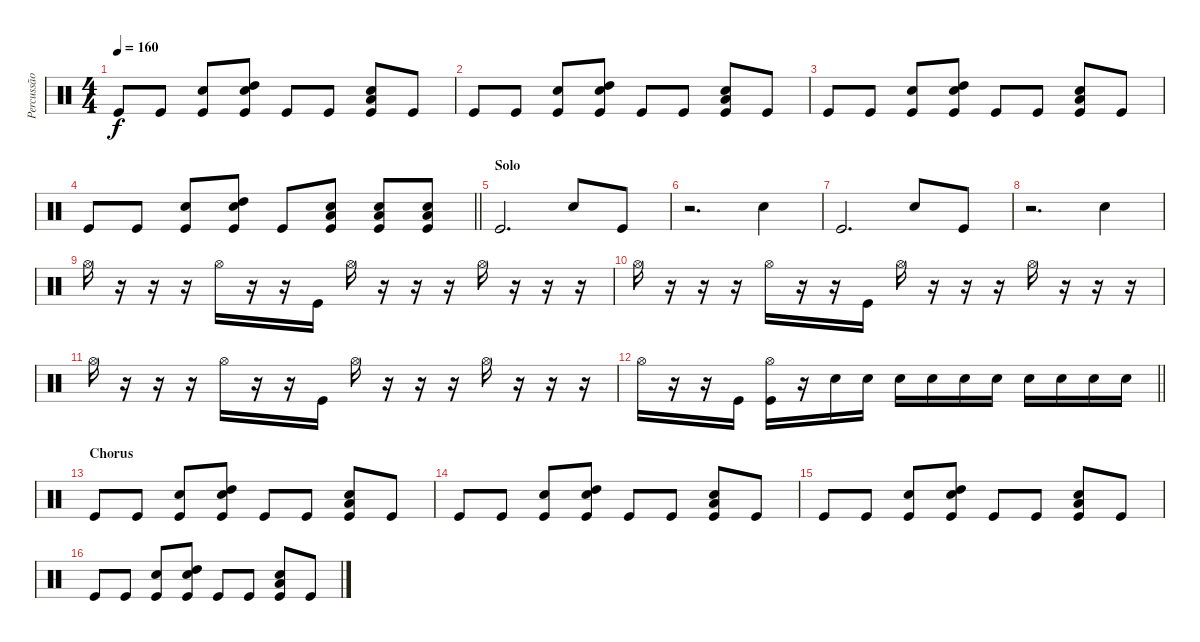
\track ("Percussão" "Percussão") {instrument percussion}
\staff {score}
\articulation defaults
\ts (4 4)
\tempo 160
\clef neutral
\ks c "Kick (hit)".8{dy f} "Kick (hit)".8
("Snare (hit) 2" "Kick (hit)").8 ("Snare (hit) 2" "High Tom (hit)" "Kick (hit)").8 "Kick (hit)".8 "Kick (hit)".8 ("Snare (hit) 2" "Low Tom (hit)" "Kick (hit)").8 "Kick (hit)".8 |
"Kick (hit)".8 "Kick (hit)".8 ("Snare (hit) 2" "Kick (hit)").8 ("Snare (hit) 2" "High Tom (hit)" "Kick (hit)").8 "Kick (hit)".8 "Kick (hit)".8 ("Snare (hit) 2" "Low Tom (hit)" "Kick (hit)").8 "Kick (hit)".8 |
"Kick (hit)".8 "Kick (hit)".8 ("Snare (hit) 2" "Kick (hit)").8 ("Snare (hit) 2" "High Tom (hit)" "Kick (hit)").8 "Kick (hit)".8 "Kick (hit)".8 ("Snare (hit) 2" "Low Tom (hit)" "Kick (hit)").8 "Kick (hit)".8 |
\barLineRight lightlight "Kick (hit)".8 "Kick (hit)".8
("Snare (hit) 2" "Kick (hit)").8 ("Snare (hit) 2" "High Tom (hit)" "Kick (hit)").8 "Kick (hit)".8 ("Snare (hit) 2" "Low Tom (hit)" "Kick (hit)").8 ("Snare (hit) 2" "Low Tom (hit)" "Kick (hit)").8 ("Snare (hit) 2" "Low Tom (hit)" "Kick (hit)").8 |
\section ("" "Solo")
"Kick (hit)".2{d} "Snare (hit) 2".8 "Kick (hit)".8 |
r.2{d} "Snare (hit) 2".4 |
"Kick (hit)".2{d} "Snare (hit) 2".8 "Kick (hit)".8 |
r.2{d} "Snare (hit) 2".4 |
"Hi-Hat (open)".16 r.16 r.16 r.16 "Hi-Hat (open)".16 r.16 r.16 "Kick (hit)".16 "Hi-Hat (open)".16 r.16 r.16 r.16 "Hi-Hat (open)".16 r.16 r.16 r.16 |
"Hi-Hat (open)".16 r.16 r.16 r.16 "Hi-Hat (open)".16 r.16 r.16 "Kick (hit)".16 "Hi-Hat (open)".16 r.16 r.16 r.16 "Hi-Hat (open)".16 r.16 r.16 r.16 |
"Hi-Hat (open)".16 r.16 r.16 r.16 "Hi-Hat (open)".16 r.16 r.16 "Kick (hit)".16 "Hi-Hat (open)".16 r.16 r.16 r.16 "Hi-Hat (open)".16 r.16 r.16 r.16 |
\barLineRight lightlight "Hi-Hat (open)".16
r.16 r.16 "Kick (hit)".16 ("Hi-Hat (open)" "Kick (hit)").16 r.16 "Snare (hit) 2".16 "Snare (hit) 2".16 "Snare (hit) 2".16 "Snare (hit) 2".16 "Snare (hit) 2".16 "Snare (hit) 2".16 "Snare (hit) 2".16 "Snare (hit) 2".16 "Snare (hit) 2".16 "Snare (hit) 2".16 |
\section ("" "Chorus")
"Kick (hit)".8 "Kick (hit)".8 ("Snare (hit) 2" "Kick (hit)").8 ("Snare (hit) 2" "High Tom (hit)" "Kick (hit)").8 "Kick (hit)".8 "Kick (hit)".8 ("Snare (hit) 2" "Low Tom (hit)" "Kick (hit)").8 "Kick (hit)".8 |
"Kick (hit)".8 "Kick (hit)".8 ("Snare (hit) 2" "Kick (hit)").8 ("Snare (hit) 2" "High Tom (hit)" "Kick (hit)").8 "Kick (hit)".8 "Kick (hit)".8 ("Snare (hit) 2" "Low Tom (hit)" "Kick (hit)").8 "Kick (hit)".8 |
"Kick (hit)".8 "Kick (hit)".8 ("Snare (hit) 2" "Kick (hit)").8 ("Snare (hit) 2" "High Tom (hit)" "Kick (hit)").8 "Kick (hit)".8 "Kick (hit)".8 ("Snare (hit) 2" "Low Tom (hit)" "Kick (hit)").8 "Kick (hit)".8 |
"Kick (hit)".8 "Kick (hit)".8 ("Snare (hit) 2" "Kick (hit)").8 ("Snare (hit) 2" "High Tom (hit)" "Kick (hit)").8 "Kick (hit)".8 "Kick (hit)".8 ("Snare (hit) 2" "Low Tom (hit)" "Kick (hit)").8 "Kick (hit)".8
